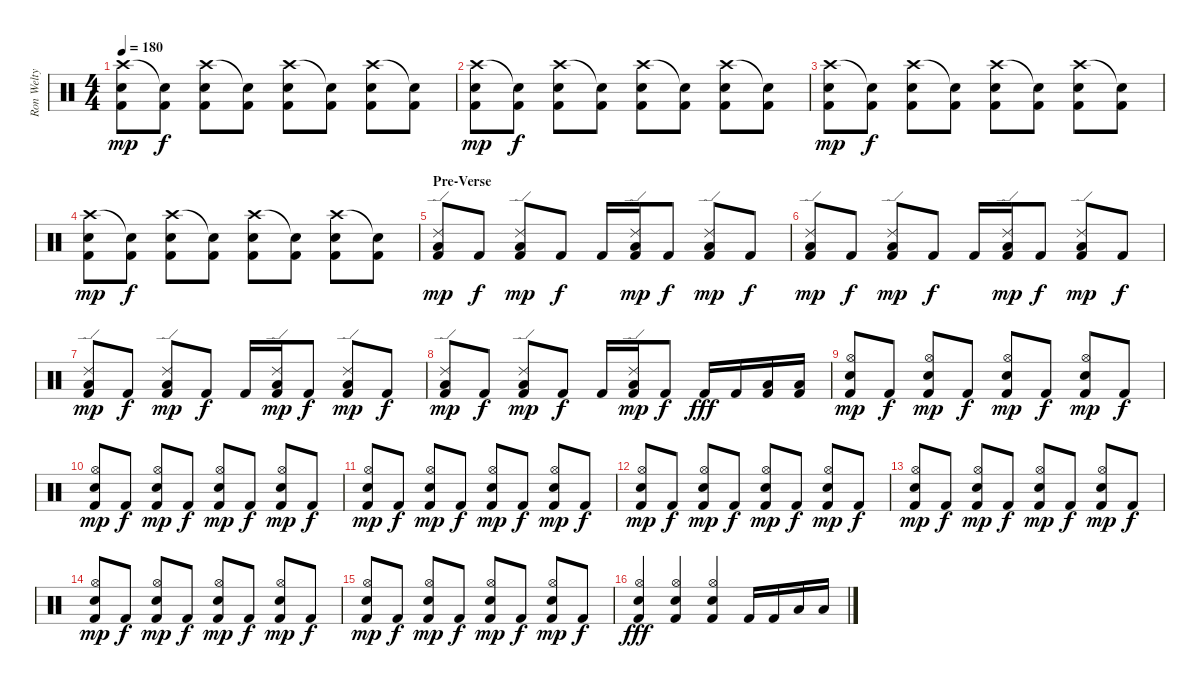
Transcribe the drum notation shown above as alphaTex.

\track ("Ron Welty" "Ron Welty") {instrument percussion}
\staff {score}
\articulation defaults
\ts (4 4)
\tempo 180
\clef neutral
\ks c
("Crash high (hit)" "Snare (hit) 2" "Kick (hit) 2").8{dy mp} ("Snare (hit)"{t} "Kick (hit) 2").8{dy f} ("Crash high (hit)" "Snare (hit) 2" "Kick (hit) 2").8 ("Snare (hit)"{t} "Kick (hit) 2").8 ("Crash high (hit)" "Snare (hit) 2" "Kick (hit) 2").8 ("Snare (hit)"{t} "Kick (hit) 2").8 ("Crash high (hit)" "Snare (hit) 2" "Kick (hit) 2").8 ("Snare (hit)"{t} "Kick (hit) 2").8 |
("Crash high (hit)" "Snare (hit) 2" "Kick (hit) 2").8{dy mp} ("Snare (hit)"{t} "Kick (hit) 2").8{dy f} ("Crash high (hit)" "Snare (hit) 2" "Kick (hit) 2").8 ("Snare (hit)"{t} "Kick (hit) 2").8 ("Crash high (hit)" "Snare (hit) 2" "Kick (hit) 2").8 ("Snare (hit)"{t} "Kick (hit) 2").8 ("Crash high (hit)" "Snare (hit) 2" "Kick (hit) 2").8 ("Snare (hit)"{t} "Kick (hit) 2").8 |
("Crash high (hit)" "Snare (hit) 2" "Kick (hit) 2").8{dy mp} ("Snare (hit)"{t} "Kick (hit) 2").8{dy f} ("Crash high (hit)" "Snare (hit) 2" "Kick (hit) 2").8 ("Snare (hit)"{t} "Kick (hit) 2").8 ("Crash high (hit)" "Snare (hit) 2" "Kick (hit) 2").8 ("Snare (hit)"{t} "Kick (hit) 2").8 ("Crash high (hit)" "Snare (hit) 2" "Kick (hit) 2").8 ("Snare (hit)"{t} "Kick (hit) 2").8 |
("Crash high (hit)" "Snare (hit) 2" "Kick (hit) 2").8{dy mp} ("Snare (hit)"{t} "Kick (hit) 2").8{dy f} ("Crash high (hit)" "Snare (hit) 2" "Kick (hit) 2").8 ("Snare (hit)"{t} "Kick (hit) 2").8 ("Crash high (hit)" "Snare (hit) 2" "Kick (hit) 2").8 ("Snare (hit)"{t} "Kick (hit) 2").8 ("Crash high (hit)" "Snare (hit) 2" "Kick (hit) 2").8 ("Snare (hit)"{t} "Kick (hit) 2").8 |
\section ("" "Pre-Verse")
("Ride (edge) 2" "Low Tom (hit)" "Kick (hit) 2").8{dy mp} "Kick (hit) 2".8{dy f} ("Ride (edge) 2" "Low Tom (hit)" "Kick (hit) 2").8{dy mp} "Kick (hit) 2".8{dy f} "Kick (hit) 2".16 ("Ride (edge) 2" "Low Tom (hit)" "Kick (hit) 2").16{dy mp} "Kick (hit) 2".8{dy f} ("Ride (edge) 2" "Low Tom (hit)" "Kick (hit) 2").8{dy mp} "Kick (hit) 2".8{dy f} |
("Ride (edge) 2" "Low Tom (hit)" "Kick (hit) 2").8{dy mp} "Kick (hit) 2".8{dy f} ("Ride (edge) 2" "Low Tom (hit)" "Kick (hit) 2").8{dy mp} "Kick (hit) 2".8{dy f} "Kick (hit) 2".16 ("Ride (edge) 2" "Low Tom (hit)" "Kick (hit) 2").16{dy mp} "Kick (hit) 2".8{dy f} ("Ride (edge) 2" "Low Tom (hit)" "Kick (hit) 2").8{dy mp} "Kick (hit) 2".8{dy f} |
("Ride (edge) 2" "Low Tom (hit)" "Kick (hit) 2").8{dy mp} "Kick (hit) 2".8{dy f} ("Ride (edge) 2" "Low Tom (hit)" "Kick (hit) 2").8{dy mp} "Kick (hit) 2".8{dy f} "Kick (hit) 2".16 ("Ride (edge) 2" "Low Tom (hit)" "Kick (hit) 2").16{dy mp} "Kick (hit) 2".8{dy f} ("Ride (edge) 2" "Low Tom (hit)" "Kick (hit) 2").8{dy mp} "Kick (hit) 2".8{dy f} |
("Ride (edge) 2" "Low Tom (hit)" "Kick (hit) 2").8{dy mp} "Kick (hit) 2".8{dy f} ("Ride (edge) 2" "Low Tom (hit)" "Kick (hit) 2").8{dy mp} "Kick (hit) 2".8{dy f} "Kick (hit) 2".16 ("Ride (edge) 2" "Low Tom (hit)" "Kick (hit) 2").16{dy mp} "Kick (hit) 2".8{dy f} "Kick (hit) 2".16{dy fff} "Kick (hit) 2".16 ("Low Floor Tom (hit)" "Kick (hit) 2").16 ("Low Tom (hit)" "Kick (hit) 2").16 |
("Hi-Hat (open)" "Electric Snare (hit)" "Kick (hit) 2").8{dy mp} "Kick (hit) 2".8{dy f} ("Hi-Hat (open)" "Electric Snare (hit)" "Kick (hit) 2").8{dy mp} "Kick (hit) 2".8{dy f} ("Hi-Hat (open)" "Electric Snare (hit)" "Kick (hit) 2").8{dy mp} "Kick (hit) 2".8{dy f} ("Hi-Hat (open)" "Electric Snare (hit)" "Kick (hit) 2").8{dy mp} "Kick (hit) 2".8{dy f} |
("Hi-Hat (open)" "Electric Snare (hit)" "Kick (hit) 2").8{dy mp} "Kick (hit) 2".8{dy f} ("Hi-Hat (open)" "Electric Snare (hit)" "Kick (hit) 2").8{dy mp} "Kick (hit) 2".8{dy f} ("Hi-Hat (open)" "Electric Snare (hit)" "Kick (hit) 2").8{dy mp} "Kick (hit) 2".8{dy f} ("Hi-Hat (open)" "Electric Snare (hit)" "Kick (hit) 2").8{dy mp} "Kick (hit) 2".8{dy f} |
("Hi-Hat (open)" "Electric Snare (hit)" "Kick (hit) 2").8{dy mp} "Kick (hit) 2".8{dy f} ("Hi-Hat (open)" "Electric Snare (hit)" "Kick (hit) 2").8{dy mp} "Kick (hit) 2".8{dy f} ("Hi-Hat (open)" "Electric Snare (hit)" "Kick (hit) 2").8{dy mp} "Kick (hit) 2".8{dy f} ("Hi-Hat (open)" "Electric Snare (hit)" "Kick (hit) 2").8{dy mp} "Kick (hit) 2".8{dy f} |
("Hi-Hat (open)" "Electric Snare (hit)" "Kick (hit) 2").8{dy mp} "Kick (hit) 2".8{dy f} ("Hi-Hat (open)" "Electric Snare (hit)" "Kick (hit) 2").8{dy mp} "Kick (hit) 2".8{dy f} ("Hi-Hat (open)" "Electric Snare (hit)" "Kick (hit) 2").8{dy mp} "Kick (hit) 2".8{dy f} ("Hi-Hat (open)" "Electric Snare (hit)" "Kick (hit) 2").8{dy mp} "Kick (hit) 2".8{dy f} |
("Hi-Hat (open)" "Electric Snare (hit)" "Kick (hit) 2").8{dy mp} "Kick (hit) 2".8{dy f} ("Hi-Hat (open)" "Electric Snare (hit)" "Kick (hit) 2").8{dy mp} "Kick (hit) 2".8{dy f} ("Hi-Hat (open)" "Electric Snare (hit)" "Kick (hit) 2").8{dy mp} "Kick (hit) 2".8{dy f} ("Hi-Hat (open)" "Electric Snare (hit)" "Kick (hit) 2").8{dy mp} "Kick (hit) 2".8{dy f} |
("Hi-Hat (open)" "Electric Snare (hit)" "Kick (hit) 2").8{dy mp} "Kick (hit) 2".8{dy f} ("Hi-Hat (open)" "Electric Snare (hit)" "Kick (hit) 2").8{dy mp} "Kick (hit) 2".8{dy f} ("Hi-Hat (open)" "Electric Snare (hit)" "Kick (hit) 2").8{dy mp} "Kick (hit) 2".8{dy f} ("Hi-Hat (open)" "Electric Snare (hit)" "Kick (hit) 2").8{dy mp} "Kick (hit) 2".8{dy f} |
("Hi-Hat (open)" "Electric Snare (hit)" "Kick (hit) 2").8{dy mp} "Kick (hit) 2".8{dy f} ("Hi-Hat (open)" "Electric Snare (hit)" "Kick (hit) 2").8{dy mp} "Kick (hit) 2".8{dy f} ("Hi-Hat (open)" "Electric Snare (hit)" "Kick (hit) 2").8{dy mp} "Kick (hit) 2".8{dy f} ("Hi-Hat (open)" "Electric Snare (hit)" "Kick (hit) 2").8{dy mp} "Kick (hit) 2".8{dy f} |
("Hi-Hat (open)" "Electric Snare (hit)" "Kick (hit) 2").4{dy fff} ("Hi-Hat (open)" "Electric Snare (hit)" "Kick (hit) 2").4 ("Hi-Hat (open)" "Electric Snare (hit)" "Kick (hit) 2").4 "Kick (hit) 2".16 "Kick (hit) 2".16 "Low Floor Tom (hit)".16 "Low Tom (hit)".16
